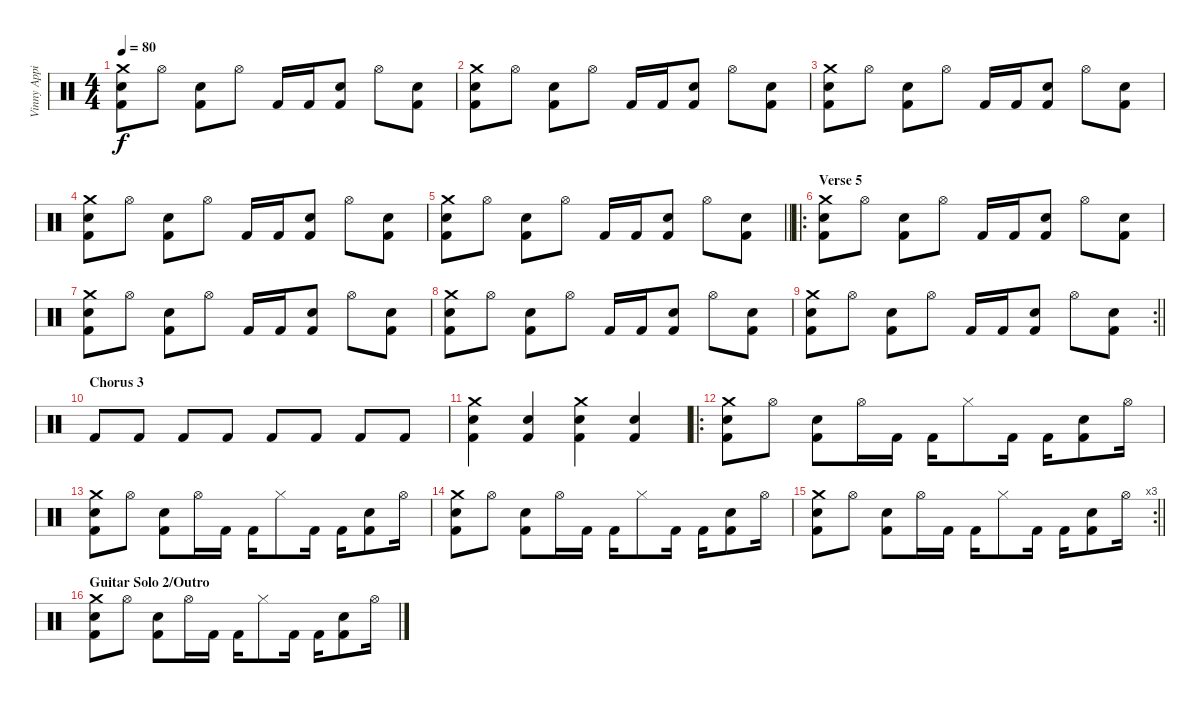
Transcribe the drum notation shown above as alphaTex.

\track ("Vinny Appice" "Vinny Appi") {instrument percussion}
\staff {score}
\articulation defaults
\ts (4 4)
\tempo 80
\clef neutral
\ks c
("Crash medium (hit)" "Snare (hit) 2" "Kick (hit) 2").8{dy f} "Hi-Hat (open)".8 ("Snare (hit) 2" "Kick (hit) 2").8 "Hi-Hat (open)".8 "Kick (hit) 2".16 "Kick (hit) 2".16 ("Snare (hit) 2" "Kick (hit) 2").8 "Hi-Hat (open)".8 ("Snare (hit) 2" "Kick (hit) 2").8 |
("Crash medium (hit)" "Snare (hit) 2" "Kick (hit) 2").8 "Hi-Hat (open)".8 ("Snare (hit) 2" "Kick (hit) 2").8 "Hi-Hat (open)".8 "Kick (hit) 2".16 "Kick (hit) 2".16 ("Snare (hit) 2" "Kick (hit) 2").8 "Hi-Hat (open)".8 ("Snare (hit) 2" "Kick (hit) 2").8 |
("Crash medium (hit)" "Snare (hit) 2" "Kick (hit) 2").8 "Hi-Hat (open)".8 ("Snare (hit) 2" "Kick (hit) 2").8 "Hi-Hat (open)".8 "Kick (hit) 2".16 "Kick (hit) 2".16 ("Snare (hit) 2" "Kick (hit) 2").8 "Hi-Hat (open)".8 ("Snare (hit) 2" "Kick (hit) 2").8 |
("Crash medium (hit)" "Snare (hit) 2" "Kick (hit) 2").8 "Hi-Hat (open)".8 ("Snare (hit) 2" "Kick (hit) 2").8 "Hi-Hat (open)".8 "Kick (hit) 2".16 "Kick (hit) 2".16 ("Snare (hit) 2" "Kick (hit) 2").8 "Hi-Hat (open)".8 ("Snare (hit) 2" "Kick (hit) 2").8 |
\barLineRight lightlight
("Crash medium (hit)" "Snare (hit) 2" "Kick (hit) 2").8 "Hi-Hat (open)".8 ("Snare (hit) 2" "Kick (hit) 2").8 "Hi-Hat (open)".8 "Kick (hit) 2".16 "Kick (hit) 2".16 ("Snare (hit) 2" "Kick (hit) 2").8 "Hi-Hat (open)".8 ("Snare (hit) 2" "Kick (hit) 2").8 |
\ro
\section ("" "Verse 5")
("Crash medium (hit)" "Snare (hit) 2" "Kick (hit) 2").8 "Hi-Hat (open)".8 ("Snare (hit) 2" "Kick (hit) 2").8 "Hi-Hat (open)".8 "Kick (hit) 2".16 "Kick (hit) 2".16 ("Snare (hit) 2" "Kick (hit) 2").8 "Hi-Hat (open)".8 ("Snare (hit) 2" "Kick (hit) 2").8 |
("Crash medium (hit)" "Snare (hit) 2" "Kick (hit) 2").8 "Hi-Hat (open)".8 ("Snare (hit) 2" "Kick (hit) 2").8 "Hi-Hat (open)".8 "Kick (hit) 2".16 "Kick (hit) 2".16 ("Snare (hit) 2" "Kick (hit) 2").8 "Hi-Hat (open)".8 ("Snare (hit) 2" "Kick (hit) 2").8 |
("Crash medium (hit)" "Snare (hit) 2" "Kick (hit) 2").8 "Hi-Hat (open)".8 ("Snare (hit) 2" "Kick (hit) 2").8 "Hi-Hat (open)".8 "Kick (hit) 2".16 "Kick (hit) 2".16 ("Snare (hit) 2" "Kick (hit) 2").8 "Hi-Hat (open)".8 ("Snare (hit) 2" "Kick (hit) 2").8 |
\rc 2
\barLineRight lightlight
("Crash medium (hit)" "Snare (hit) 2" "Kick (hit) 2").8 "Hi-Hat (open)".8 ("Snare (hit) 2" "Kick (hit) 2").8 "Hi-Hat (open)".8 "Kick (hit) 2".16 "Kick (hit) 2".16 ("Snare (hit) 2" "Kick (hit) 2").8 "Hi-Hat (open)".8 ("Snare (hit) 2" "Kick (hit) 2").8 |
\section ("" "Chorus 3")
"Kick (hit) 2".8 "Kick (hit) 2".8 "Kick (hit) 2".8 "Kick (hit) 2".8 "Kick (hit) 2".8 "Kick (hit) 2".8 "Kick (hit) 2".8 "Kick (hit) 2".8 |
("Crash medium (hit)" "Snare (hit) 2" "Kick (hit) 2").4 ("Snare (hit) 2" "Kick (hit) 2").4 ("Crash medium (hit)" "Snare (hit) 2" "Kick (hit) 2").4 ("Snare (hit) 2" "Kick (hit) 2").4 |
\ro
("Crash medium (hit)" "Snare (hit) 2" "Kick (hit) 2").8 "Hi-Hat (open)".8 ("Snare (hit) 2" "Kick (hit) 2").8 "Hi-Hat (open)".16 "Kick (hit) 2".16 "Kick (hit) 2".16 "Hi-Hat (closed)".8 "Kick (hit) 2".16 "Kick (hit) 2".16 ("Snare (hit) 2" "Kick (hit) 2").8 "Hi-Hat (open)".16 |
("Crash medium (hit)" "Snare (hit) 2" "Kick (hit) 2").8 "Hi-Hat (open)".8 ("Snare (hit) 2" "Kick (hit) 2").8 "Hi-Hat (open)".16 "Kick (hit) 2".16 "Kick (hit) 2".16 "Hi-Hat (closed)".8 "Kick (hit) 2".16 "Kick (hit) 2".16 ("Snare (hit) 2" "Kick (hit) 2").8 "Hi-Hat (open)".16 |
("Crash medium (hit)" "Snare (hit) 2" "Kick (hit) 2").8 "Hi-Hat (open)".8 ("Snare (hit) 2" "Kick (hit) 2").8 "Hi-Hat (open)".16 "Kick (hit) 2".16 "Kick (hit) 2".16 "Hi-Hat (closed)".8 "Kick (hit) 2".16 "Kick (hit) 2".16 ("Snare (hit) 2" "Kick (hit) 2").8 "Hi-Hat (open)".16 |
\rc 3
\barLineRight lightlight
("Crash medium (hit)" "Snare (hit) 2" "Kick (hit) 2").8 "Hi-Hat (open)".8 ("Snare (hit) 2" "Kick (hit) 2").8 "Hi-Hat (open)".16 "Kick (hit) 2".16 "Kick (hit) 2".16 "Hi-Hat (closed)".8 "Kick (hit) 2".16 "Kick (hit) 2".16 ("Snare (hit) 2" "Kick (hit) 2").8 "Hi-Hat (open)".16 |
\section ("" "Guitar Solo 2/Outro")
("Crash medium (hit)" "Snare (hit) 2" "Kick (hit) 2").8 "Hi-Hat (open)".8 ("Snare (hit) 2" "Kick (hit) 2").8 "Hi-Hat (open)".16 "Kick (hit) 2".16 "Kick (hit) 2".16 "Hi-Hat (closed)".8 "Kick (hit) 2".16 "Kick (hit) 2".16 ("Snare (hit) 2" "Kick (hit) 2").8 "Hi-Hat (open)".16
